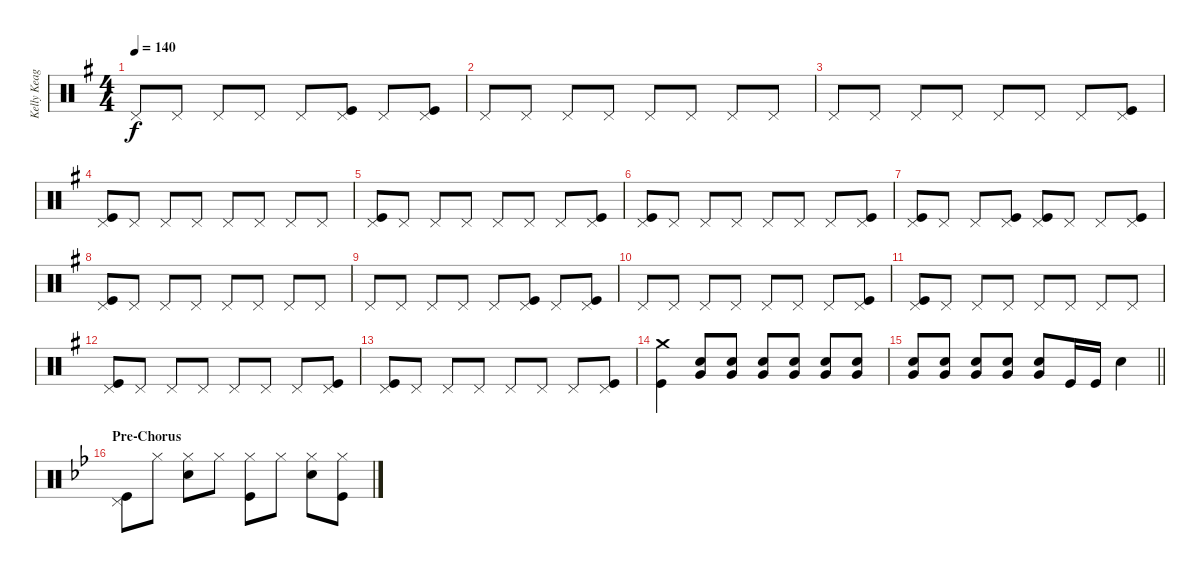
\track ("Kelly Keagy" "Kelly Keag") {instrument percussion}
\staff {score}
\articulation defaults
\ts (4 4)
\tempo 140
\clef neutral
\ks g "Pedal Hi-Hat (hit)".8{dy f} "Pedal Hi-Hat (hit)".8 "Pedal Hi-Hat (hit)".8 "Pedal Hi-Hat (hit)".8 "Pedal Hi-Hat (hit)".8
("Pedal Hi-Hat (hit)" "Kick (hit)").8 "Pedal Hi-Hat (hit)".8 ("Pedal Hi-Hat (hit)" "Kick (hit)").8 |
"Pedal Hi-Hat (hit)".8 "Pedal Hi-Hat (hit)".8 "Pedal Hi-Hat (hit)".8 "Pedal Hi-Hat (hit)".8 "Pedal Hi-Hat (hit)".8 "Pedal Hi-Hat (hit)".8 "Pedal Hi-Hat (hit)".8 "Pedal Hi-Hat (hit)".8 |
"Pedal Hi-Hat (hit)".8 "Pedal Hi-Hat (hit)".8 "Pedal Hi-Hat (hit)".8 "Pedal Hi-Hat (hit)".8 "Pedal Hi-Hat (hit)".8 "Pedal Hi-Hat (hit)".8 "Pedal Hi-Hat (hit)".8 ("Pedal Hi-Hat (hit)" "Kick (hit)").8 |
("Pedal Hi-Hat (hit)" "Kick (hit)").8 "Pedal Hi-Hat (hit)".8 "Pedal Hi-Hat (hit)".8 "Pedal Hi-Hat (hit)".8 "Pedal Hi-Hat (hit)".8 "Pedal Hi-Hat (hit)".8 "Pedal Hi-Hat (hit)".8 "Pedal Hi-Hat (hit)".8 |
("Pedal Hi-Hat (hit)" "Kick (hit)").8 "Pedal Hi-Hat (hit)".8 "Pedal Hi-Hat (hit)".8 "Pedal Hi-Hat (hit)".8 "Pedal Hi-Hat (hit)".8 "Pedal Hi-Hat (hit)".8 "Pedal Hi-Hat (hit)".8 ("Pedal Hi-Hat (hit)" "Kick (hit)").8 |
("Pedal Hi-Hat (hit)" "Kick (hit)").8 "Pedal Hi-Hat (hit)".8 "Pedal Hi-Hat (hit)".8 "Pedal Hi-Hat (hit)".8 "Pedal Hi-Hat (hit)".8 "Pedal Hi-Hat (hit)".8 "Pedal Hi-Hat (hit)".8 ("Pedal Hi-Hat (hit)" "Kick (hit)").8 |
("Pedal Hi-Hat (hit)" "Kick (hit)").8 "Pedal Hi-Hat (hit)".8 "Pedal Hi-Hat (hit)".8 ("Pedal Hi-Hat (hit)" "Kick (hit)").8 ("Pedal Hi-Hat (hit)" "Kick (hit)").8 "Pedal Hi-Hat (hit)".8 "Pedal Hi-Hat (hit)".8 ("Pedal Hi-Hat (hit)" "Kick (hit)").8 |
("Pedal Hi-Hat (hit)" "Kick (hit)").8 "Pedal Hi-Hat (hit)".8 "Pedal Hi-Hat (hit)".8 "Pedal Hi-Hat (hit)".8 "Pedal Hi-Hat (hit)".8 "Pedal Hi-Hat (hit)".8 "Pedal Hi-Hat (hit)".8 "Pedal Hi-Hat (hit)".8 |
"Pedal Hi-Hat (hit)".8 "Pedal Hi-Hat (hit)".8 "Pedal Hi-Hat (hit)".8 "Pedal Hi-Hat (hit)".8 "Pedal Hi-Hat (hit)".8 ("Pedal Hi-Hat (hit)" "Kick (hit)").8 "Pedal Hi-Hat (hit)".8 ("Pedal Hi-Hat (hit)" "Kick (hit)").8 |
"Pedal Hi-Hat (hit)".8 "Pedal Hi-Hat (hit)".8 "Pedal Hi-Hat (hit)".8 "Pedal Hi-Hat (hit)".8 "Pedal Hi-Hat (hit)".8 "Pedal Hi-Hat (hit)".8 "Pedal Hi-Hat (hit)".8 ("Pedal Hi-Hat (hit)" "Kick (hit)").8 |
("Pedal Hi-Hat (hit)" "Kick (hit)").8 "Pedal Hi-Hat (hit)".8 "Pedal Hi-Hat (hit)".8 "Pedal Hi-Hat (hit)".8 "Pedal Hi-Hat (hit)".8 "Pedal Hi-Hat (hit)".8 "Pedal Hi-Hat (hit)".8 "Pedal Hi-Hat (hit)".8 |
("Pedal Hi-Hat (hit)" "Kick (hit)").8 "Pedal Hi-Hat (hit)".8 "Pedal Hi-Hat (hit)".8 "Pedal Hi-Hat (hit)".8 "Pedal Hi-Hat (hit)".8 "Pedal Hi-Hat (hit)".8 "Pedal Hi-Hat (hit)".8 ("Pedal Hi-Hat (hit)" "Kick (hit)").8 |
("Pedal Hi-Hat (hit)" "Kick (hit)").8 "Pedal Hi-Hat (hit)".8 "Pedal Hi-Hat (hit)".8 "Pedal Hi-Hat (hit)".8 "Pedal Hi-Hat (hit)".8 "Pedal Hi-Hat (hit)".8 "Pedal Hi-Hat (hit)".8 ("Pedal Hi-Hat (hit)" "Kick (hit)").8 |
("Crash medium (hit)" "Kick (hit)").4 ("Snare (hit) 2" "Very Low Tom (hit)").8{volume 8} ("Snare (hit) 2" "Very Low Tom (hit)").8{volume 15} ("Snare (hit) 2" "Very Low Tom (hit)").8 ("Snare (hit) 2" "Very Low Tom (hit)").8 ("Snare (hit) 2" "Very Low Tom (hit)").8 ("Snare (hit) 2" "Very Low Tom (hit)").8 |
\barLineRight lightlight
("Snare (hit) 2" "Very Low Tom (hit)").8 ("Snare (hit) 2" "Very Low Tom (hit)").8 ("Snare (hit) 2" "Very Low Tom (hit)").8 ("Snare (hit) 2" "Very Low Tom (hit)").8 ("Snare (hit) 2" "Very Low Tom (hit)").8 "Kick (hit)".16 "Kick (hit)".16 "Snare (hit) 2".4 |
\section ("" "Pre-Chorus")
\ks bb
("Pedal Hi-Hat (hit)" "Kick (hit)").8 "Hi-Hat (closed)".8 ("Hi-Hat (closed)" "Snare (hit) 2").8 "Hi-Hat (closed)".8 ("Hi-Hat (closed)" "Kick (hit)").8 "Hi-Hat (closed)".8 ("Hi-Hat (closed)" "Snare (hit) 2").8 ("Hi-Hat (closed)" "Kick (hit)").8
